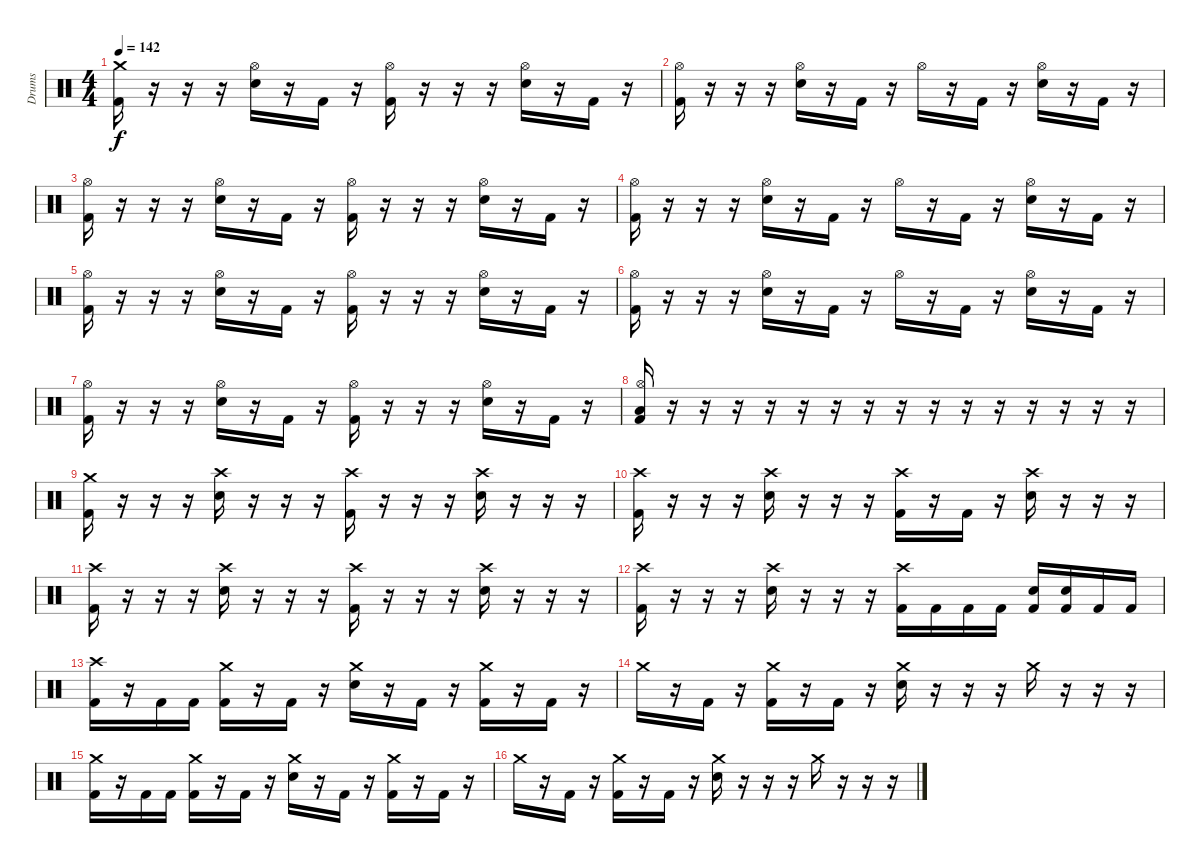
\track ("Drums" "Drums") {instrument percussion}
\staff {score}
\articulation defaults
\ts (4 4)
\tempo 142
\clef neutral
\ks c
("Crash medium (hit)" "Kick (hit) 2").16{dy f} r.16 r.16 r.16 ("Hi-Hat (open)" "Electric Snare (hit)").16 r.16 "Kick (hit) 2".16 r.16 ("Hi-Hat (open)" "Kick (hit) 2").16 r.16 r.16 r.16 ("Hi-Hat (open)" "Electric Snare (hit)").16 r.16 "Kick (hit) 2".16 r.16 |
("Hi-Hat (open)" "Kick (hit) 2").16 r.16 r.16 r.16 ("Hi-Hat (open)" "Electric Snare (hit)").16 r.16 "Kick (hit) 2".16 r.16 "Hi-Hat (open)".16 r.16 "Kick (hit) 2".16 r.16 ("Hi-Hat (open)" "Electric Snare (hit)").16 r.16 "Kick (hit) 2".16 r.16 |
("Hi-Hat (open)" "Kick (hit) 2").16 r.16 r.16 r.16 ("Hi-Hat (open)" "Electric Snare (hit)").16 r.16 "Kick (hit) 2".16 r.16 ("Hi-Hat (open)" "Kick (hit) 2").16 r.16 r.16 r.16 ("Hi-Hat (open)" "Electric Snare (hit)").16 r.16 "Kick (hit) 2".16 r.16 |
("Hi-Hat (open)" "Kick (hit) 2").16 r.16 r.16 r.16 ("Hi-Hat (open)" "Electric Snare (hit)").16 r.16 "Kick (hit) 2".16 r.16 "Hi-Hat (open)".16 r.16 "Kick (hit) 2".16 r.16 ("Hi-Hat (open)" "Electric Snare (hit)").16 r.16 "Kick (hit) 2".16 r.16 |
("Hi-Hat (open)" "Kick (hit) 2").16 r.16 r.16 r.16 ("Hi-Hat (open)" "Electric Snare (hit)").16 r.16 "Kick (hit) 2".16 r.16 ("Hi-Hat (open)" "Kick (hit) 2").16 r.16 r.16 r.16 ("Hi-Hat (open)" "Electric Snare (hit)").16 r.16 "Kick (hit) 2".16 r.16 |
("Hi-Hat (open)" "Kick (hit) 2").16 r.16 r.16 r.16 ("Hi-Hat (open)" "Electric Snare (hit)").16 r.16 "Kick (hit) 2".16 r.16 "Hi-Hat (open)".16 r.16 "Kick (hit) 2".16 r.16 ("Hi-Hat (open)" "Electric Snare (hit)").16 r.16 "Kick (hit) 2".16 r.16 |
("Hi-Hat (open)" "Kick (hit) 2").16 r.16 r.16 r.16 ("Hi-Hat (open)" "Electric Snare (hit)").16 r.16 "Kick (hit) 2".16 r.16 ("Hi-Hat (open)" "Kick (hit) 2").16 r.16 r.16 r.16 ("Hi-Hat (open)" "Electric Snare (hit)").16 r.16 "Kick (hit) 2".16 r.16 |
("Hi-Hat (open)" "Low Floor Tom (hit)" "Kick (hit) 2").16 r.16 r.16 r.16 r.16 r.16 r.16 r.16 r.16 r.16 r.16 r.16 r.16 r.16 r.16 r.16 |
("Crash medium (hit)" "Kick (hit) 2").16 r.16 r.16 r.16 ("Crash high (hit)" "Electric Snare (hit)").16 r.16 r.16 r.16 ("Crash high (hit)" "Kick (hit) 2").16 r.16 r.16 r.16 ("Crash high (hit)" "Electric Snare (hit)").16 r.16 r.16 r.16 |
("Crash high (hit)" "Kick (hit) 2").16 r.16 r.16 r.16 ("Crash high (hit)" "Electric Snare (hit)").16 r.16 r.16 r.16 ("Crash high (hit)" "Kick (hit) 2").16 r.16 "Kick (hit) 2".16 r.16 ("Crash high (hit)" "Electric Snare (hit)").16 r.16 r.16 r.16 |
("Crash high (hit)" "Kick (hit) 2").16 r.16 r.16 r.16 ("Crash high (hit)" "Electric Snare (hit)").16 r.16 r.16 r.16 ("Crash high (hit)" "Kick (hit) 2").16 r.16 r.16 r.16 ("Crash high (hit)" "Electric Snare (hit)").16 r.16 r.16 r.16 |
("Crash high (hit)" "Kick (hit) 2").16 r.16 r.16 r.16 ("Crash high (hit)" "Electric Snare (hit)").16 r.16 r.16 r.16 ("Crash high (hit)" "Kick (hit) 2").16 "Kick (hit) 2".16 "Kick (hit) 2".16 "Kick (hit) 2".16 ("Electric Snare (hit)" "Kick (hit) 2").16 ("Electric Snare (hit)" "Kick (hit) 2").16 "Kick (hit) 2".16 "Kick (hit) 2".16 |
("Crash high (hit)" "Kick (hit) 2").16 r.16 "Kick (hit) 2".16 "Kick (hit) 2".16 ("Crash medium (hit)" "Kick (hit) 2").16 r.16 "Kick (hit) 2".16 r.16 ("Crash medium (hit)" "Electric Snare (hit)").16 r.16 "Kick (hit) 2".16 r.16 ("Crash medium (hit)" "Kick (hit) 2").16 r.16 "Kick (hit) 2".16 r.16 |
"Crash medium (hit)".16 r.16 "Kick (hit) 2".16 r.16 ("Crash medium (hit)" "Kick (hit) 2").16 r.16 "Kick (hit) 2".16 r.16 ("Crash medium (hit)" "Electric Snare (hit)").16 r.16 r.16 r.16 "Crash medium (hit)".16 r.16 r.16 r.16 |
("Crash medium (hit)" "Kick (hit) 2").16 r.16 "Kick (hit) 2".16 "Kick (hit) 2".16 ("Crash medium (hit)" "Kick (hit) 2").16 r.16 "Kick (hit) 2".16 r.16 ("Crash medium (hit)" "Electric Snare (hit)").16 r.16 "Kick (hit) 2".16 r.16 ("Crash medium (hit)" "Kick (hit) 2").16 r.16 "Kick (hit) 2".16 r.16 |
"Crash medium (hit)".16 r.16 "Kick (hit) 2".16 r.16 ("Crash medium (hit)" "Kick (hit) 2").16 r.16 "Kick (hit) 2".16 r.16 ("Crash medium (hit)" "Electric Snare (hit)").16 r.16 r.16 r.16 "Crash medium (hit)".16 r.16 r.16 r.16
